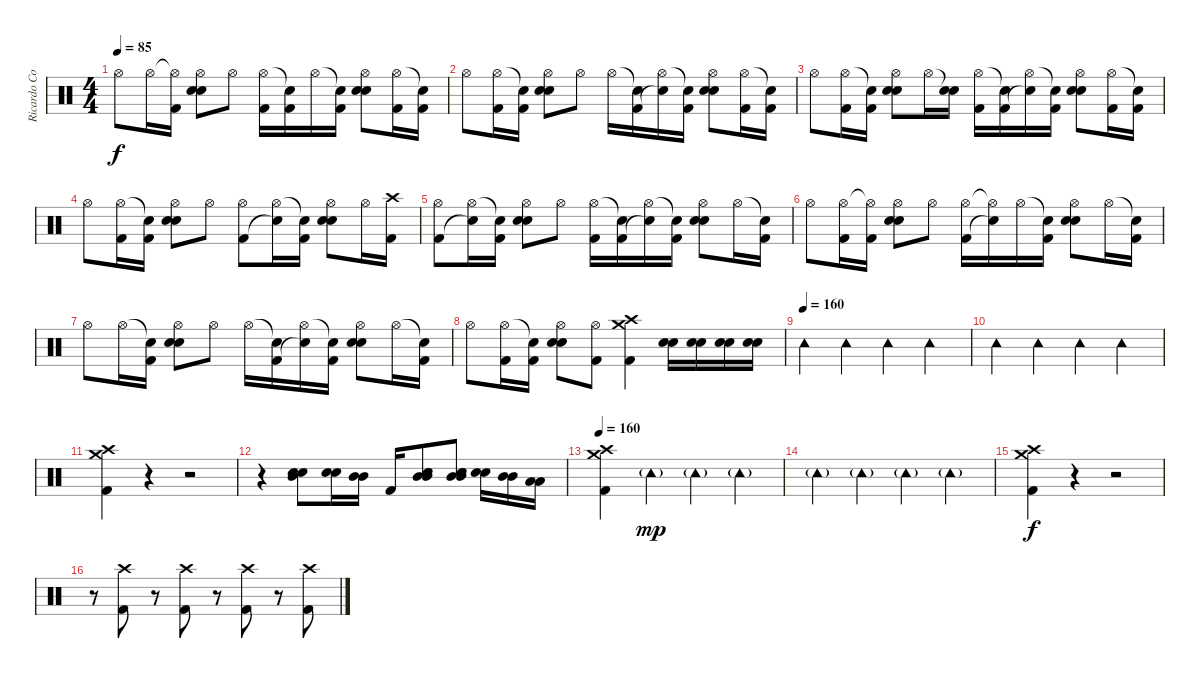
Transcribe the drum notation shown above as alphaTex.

\track ("Ricardo Confessori" "Ricardo Co") {instrument percussion}
\staff {score}
\articulation defaults
\ts (4 4)
\tempo 85
\clef neutral
\ks c "Hi-Hat (open)"{t}.8{dy f} "Hi-Hat (open)".16
("Hi-Hat (open)"{t} "Kick (hit) 2").16 ("Hi-Hat (open)" "Snare (hit) 2" "Electric Snare (hit)").8 "Hi-Hat (open)".8 ("Hi-Hat (open)" "Kick (hit) 2").16 ("Snare (hit)"{t} "Kick (hit) 2").16 "Hi-Hat (open)".16 ("Snare (hit)"{t} "Kick (hit) 2").16 ("Hi-Hat (open)" "Snare (hit) 2" "Electric Snare (hit)").8 ("Hi-Hat (open)" "Kick (hit) 2").16 ("Snare (hit)"{t} "Kick (hit) 2").16 |
"Hi-Hat (open)".8 ("Hi-Hat (open)" "Kick (hit) 2").16 ("Snare (hit)"{t} "Kick (hit) 2").16 ("Hi-Hat (open)" "Snare (hit) 2" "Electric Snare (hit)").8 "Hi-Hat (open)".8 "Hi-Hat (open)".16 ("Snare (hit)"{t} "Kick (hit) 2").16 ("Hi-Hat (open)" "Snare (hit)"{t}).16 ("Snare (hit)"{t} "Kick (hit) 2").16 ("Hi-Hat (open)" "Snare (hit) 2" "Electric Snare (hit)").8 ("Hi-Hat (open)" "Kick (hit) 2").16 ("Snare (hit)"{t} "Kick (hit) 2").16 |
"Hi-Hat (open)".8 ("Hi-Hat (open)" "Kick (hit) 2").16 ("Snare (hit)"{t} "Kick (hit) 2").16 ("Hi-Hat (open)" "Electric Snare (hit)" "Snare (hit) 2").8 "Hi-Hat (open)".16 ("Snare (hit)"{t} "Snare (hit) 2").16 ("Hi-Hat (open)" "Kick (hit) 2").16 ("Snare (hit)"{t} "Kick (hit) 2").16 ("Hi-Hat (open)" "Snare (hit)"{t}).16 ("Snare (hit)"{t} "Kick (hit) 2").16 ("Hi-Hat (open)" "Electric Snare (hit)" "Snare (hit) 2").8 ("Hi-Hat (open)" "Kick (hit) 2").16 ("Snare (hit)"{t} "Kick (hit) 2").16 |
"Hi-Hat (open)".8 ("Hi-Hat (open)" "Kick (hit) 2").16 ("Snare (hit)"{t} "Kick (hit) 2").16 ("Hi-Hat (open)" "Electric Snare (hit)" "Snare (hit) 2").8 "Hi-Hat (open)".8 ("Hi-Hat (open)" "Kick (hit) 2").8 ("Hi-Hat (open)" "Snare (hit)"{t}).16 ("Snare (hit)"{t} "Kick (hit) 2").16 ("Hi-Hat (open)" "Electric Snare (hit)" "Snare (hit) 2").8 "Hi-Hat (open)".16 ("Crash high (hit)" "Kick (hit) 2").16 |
("Hi-Hat (open)" "Kick (hit) 2").8 ("Hi-Hat (open)" "Snare (hit)"{t}).16 ("Snare (hit)"{t} "Kick (hit) 2").16 ("Hi-Hat (open)" "Electric Snare (hit)" "Snare (hit) 2").8 "Hi-Hat (open)".8 ("Hi-Hat (open)" "Kick (hit) 2").16 ("Snare (hit)"{t} "Kick (hit) 2").16 ("Hi-Hat (open)" "Snare (hit)"{t}).16 ("Snare (hit)"{t} "Kick (hit) 2").16 ("Hi-Hat (open)" "Electric Snare (hit)" "Snare (hit) 2").8 "Hi-Hat (open)".16 ("Snare (hit)"{t} "Kick (hit) 2").16 |
"Hi-Hat (open)".8 ("Hi-Hat (open)" "Kick (hit) 2").16 ("Hi-Hat (open)"{t} "Kick (hit) 2").16 ("Hi-Hat (open)" "Electric Snare (hit)" "Snare (hit) 2").8 "Hi-Hat (open)".8 ("Hi-Hat (open)" "Kick (hit) 2").16 ("Hi-Hat (open)"{t} "Snare (hit)"{t}).16 "Hi-Hat (open)".16 ("Snare (hit)"{t} "Kick (hit) 2").16 ("Hi-Hat (open)" "Electric Snare (hit)" "Snare (hit) 2").8 "Hi-Hat (open)".16 ("Snare (hit)"{t} "Kick (hit) 2").16 |
"Hi-Hat (open)".8 "Hi-Hat (open)".16 ("Snare (hit)"{t} "Kick (hit) 2").16 ("Hi-Hat (open)" "Electric Snare (hit)" "Snare (hit) 2").8 "Hi-Hat (open)".8 "Hi-Hat (open)".16 ("Snare (hit)"{t} "Kick (hit) 2").16 ("Hi-Hat (open)" "Snare (hit)"{t}).16 ("Snare (hit)"{t} "Kick (hit) 2").16 ("Hi-Hat (open)" "Electric Snare (hit)" "Snare (hit) 2").8 "Hi-Hat (open)".16 ("Snare (hit)"{t} "Kick (hit) 2").16 |
"Hi-Hat (open)".8 ("Hi-Hat (open)" "Kick (hit) 2").16 ("Snare (hit)"{t} "Kick (hit) 2").16 ("Hi-Hat (open)" "Electric Snare (hit)" "Snare (hit) 2").8 ("Hi-Hat (open)" "Kick (hit) 2").8 ("Crash high (hit)" "Crash medium (hit)" "Kick (hit) 2").4 ("Electric Snare (hit)" "Snare (hit) 2").16 ("Electric Snare (hit)" "Snare (hit) 2").16 ("Electric Snare (hit)" "Snare (hit) 2").16 ("Electric Snare (hit)" "Snare (hit) 2").16 |
\tempo (160)
"Tambourine (hit)".4 "Tambourine (hit)".4 "Tambourine (hit)".4 "Tambourine (hit)".4 |
"Tambourine (hit)".4 "Tambourine (hit)".4 "Tambourine (hit)".4 "Tambourine (hit)".4 |
("Crash high (hit)" "Crash medium (hit)" "Kick (hit) 2").4 r.4 r.2 |
r.4 ("Mid Tom (hit)" "Electric Snare (hit)" "Snare (hit) 2").8 ("Electric Snare (hit)" "Snare (hit) 2").16 ("Mid Tom (hit)" "Mid Tom (hit)").16 "Kick (hit) 2".16 ("Mid Tom (hit)" "Mid Tom (hit)" "Snare (hit) 2" "Electric Snare (hit)").8 ("Mid Tom (hit)" "Mid Tom (hit)" "Electric Snare (hit)" "Snare (hit) 2").8 ("Electric Snare (hit)" "Snare (hit) 2").16 ("Mid Tom (hit)" "Mid Tom (hit)").16 ("Low Tom (hit)" "Low Tom (hit)").16 |
\tempo 160
("Crash high (hit)" "Crash medium (hit)" "Kick (hit) 2").4 "Tambourine (hit)"{g}.4{dy mp} "Tambourine (hit)"{g}.4 "Tambourine (hit)"{g}.4 |
"Tambourine (hit)"{g}.4 "Tambourine (hit)"{g}.4 "Tambourine (hit)"{g}.4 "Tambourine (hit)"{g}.4 |
("Crash high (hit)" "Crash medium (hit)" "Kick (hit) 2").4{dy f} r.4 r.2 |
r.8 ("Crash high (hit)" "Kick (hit) 2").8 r.8 ("Crash high (hit)" "Kick (hit) 2").8 r.8 ("Crash high (hit)" "Kick (hit) 2").8 r.8 ("Crash high (hit)" "Kick (hit) 2").8
